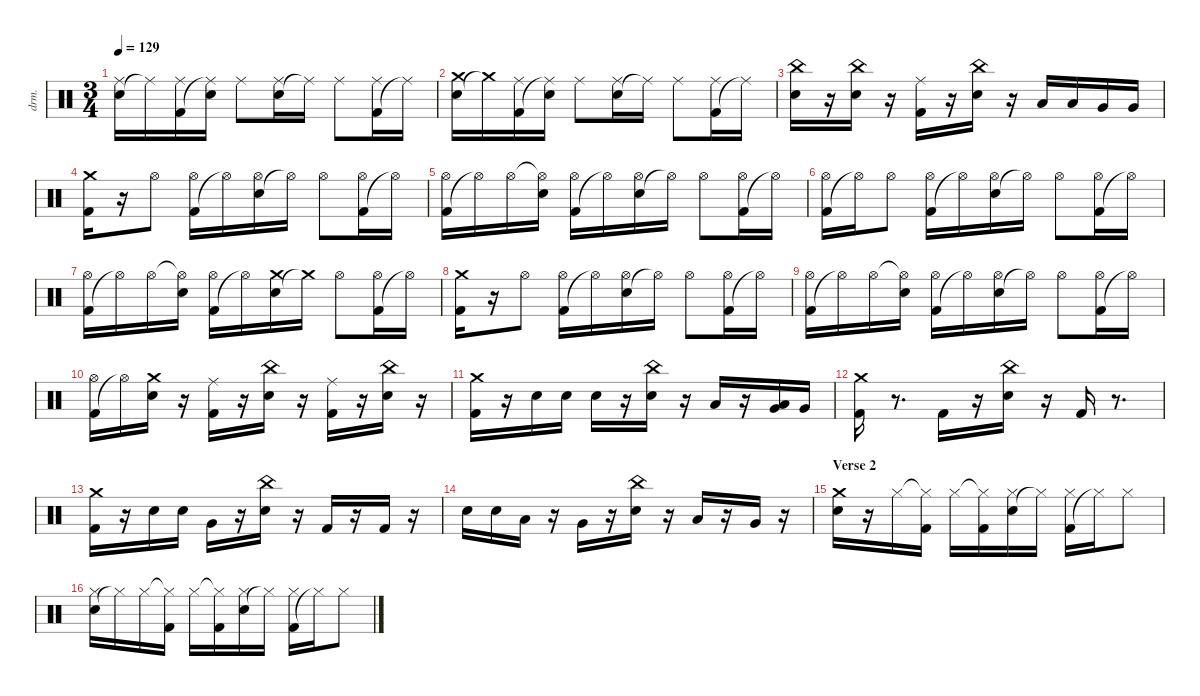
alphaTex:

\defaultSystemsLayout 4
\hideDynamics
\bracketExtendMode nobrackets
\otherSystemsTrackNameOrientation horizontal
\track ("Drumkit" "drm.") {instrument percussion}
\staff {score}
\articulation defaults
\ts (3 4)
\tempo 129
\clef neutral
\ks c
("Snare (hit) 2" "Ride (middle)"{acc #}).16{dy fff} "Ride (middle)"{t acc #}.16 ("Kick (hit) 2" "Ride (middle)"{acc #}).16 ("Ride (middle)"{t acc #} "Snare (hit) 2").16 "Ride (middle)"{acc #}.8 ("Snare (hit) 2" "Ride (middle)"{acc #}).16 "Ride (middle)"{t acc #}.16 "Ride (middle)"{acc #}.8 ("Kick (hit) 2" "Ride (middle)"{acc #}).16 "Ride (middle)"{t acc #}.16 |
("Snare (hit) 2" "Crash medium (hit)").16 "Crash medium (hit)"{t}.16 ("Kick (hit) 2" "Ride (middle)"{acc #}).16 ("Ride (middle)"{t acc #} "Snare (hit) 2").16 "Ride (middle)"{acc #}.8 ("Snare (hit) 2" "Ride (middle)"{acc #}).16 "Ride (middle)"{t acc #}.16 "Ride (middle)"{acc #}.8 ("Kick (hit) 2" "Ride (middle)"{acc #}).16 "Ride (middle)"{t acc #}.16 |
("Snare (hit) 2" "China (hit)").16 r.16 ("Snare (hit) 2" "China (hit)").16 r.16 ("Kick (hit) 2" "Ride (middle)"{acc #}).16 r.16 ("Snare (hit) 2" "China (hit)").16 r.16 "Low Tom (hit)".16 "Low Tom (hit)".16 "Very Low Tom (hit)".16 "Very Low Tom (hit)".16 |
("Kick (hit) 2" "Crash medium (hit)").16 r.16 "Hi-Hat (open)"{acc #}.8 ("Kick (hit) 2" "Hi-Hat (open)"{acc #}).16 "Hi-Hat (open)"{t acc #}.16 ("Snare (hit) 2" "Hi-Hat (open)"{acc #}).16 "Hi-Hat (open)"{t acc #}.16 "Hi-Hat (open)"{acc #}.8 ("Kick (hit) 2" "Hi-Hat (open)"{acc #}).16 "Hi-Hat (open)"{t acc #}.16 |
("Kick (hit) 2" "Hi-Hat (open)"{acc #}).16 "Hi-Hat (open)"{t acc #}.16 "Hi-Hat (open)"{acc #}.16 ("Hi-Hat (open)"{t acc #} "Snare (hit) 2").16 ("Kick (hit) 2" "Hi-Hat (open)"{acc #}).16 "Hi-Hat (open)"{t acc #}.16 ("Snare (hit) 2" "Hi-Hat (open)"{acc #}).16 "Hi-Hat (open)"{t acc #}.16 "Hi-Hat (open)"{acc #}.8 ("Kick (hit) 2" "Hi-Hat (open)"{acc #}).16 "Hi-Hat (open)"{t acc #}.16 |
("Kick (hit) 2" "Hi-Hat (open)"{acc #}).16 "Hi-Hat (open)"{t acc #}.16 "Hi-Hat (open)"{acc #}.8 ("Kick (hit) 2" "Hi-Hat (open)"{acc #}).16 "Hi-Hat (open)"{t acc #}.16 ("Snare (hit) 2" "Hi-Hat (open)"{acc #}).16 "Hi-Hat (open)"{t acc #}.16 "Hi-Hat (open)"{acc #}.8 ("Kick (hit) 2" "Hi-Hat (open)"{acc #}).16 "Hi-Hat (open)"{t acc #}.16 |
("Kick (hit) 2" "Hi-Hat (open)"{acc #}).16 "Hi-Hat (open)"{t acc #}.16 "Hi-Hat (open)"{acc #}.16 ("Hi-Hat (open)"{t acc #} "Snare (hit) 2").16 ("Kick (hit) 2" "Hi-Hat (open)"{acc #}).16 "Hi-Hat (open)"{t acc #}.16 ("Snare (hit) 2" "Crash medium (hit)").16 "Crash medium (hit)"{t}.16 "Hi-Hat (open)"{acc #}.8 ("Kick (hit) 2" "Hi-Hat (open)"{acc #}).16 "Hi-Hat (open)"{t acc #}.16 |
("Kick (hit) 2" "Crash medium (hit)").16 r.16 "Hi-Hat (open)"{acc #}.8 ("Kick (hit) 2" "Hi-Hat (open)"{acc #}).16 "Hi-Hat (open)"{t acc #}.16 ("Snare (hit) 2" "Hi-Hat (open)"{acc #}).16 "Hi-Hat (open)"{t acc #}.16 "Hi-Hat (open)"{acc #}.8 ("Kick (hit) 2" "Hi-Hat (open)"{acc #}).16 "Hi-Hat (open)"{t acc #}.16 |
("Kick (hit) 2" "Hi-Hat (open)"{acc #}).16 "Hi-Hat (open)"{t acc #}.16 "Hi-Hat (open)"{acc #}.16 ("Hi-Hat (open)"{t acc #} "Snare (hit) 2").16 ("Kick (hit) 2" "Hi-Hat (open)"{acc #}).16 "Hi-Hat (open)"{t acc #}.16 ("Snare (hit) 2" "Hi-Hat (open)"{acc #}).16 "Hi-Hat (open)"{t acc #}.16 "Hi-Hat (open)"{acc #}.8 ("Kick (hit) 2" "Hi-Hat (open)"{acc #}).16 "Hi-Hat (open)"{t acc #}.16 |
("Kick (hit) 2" "Hi-Hat (open)"{acc #}).16 "Hi-Hat (open)"{t acc #}.16 ("Snare (hit) 2" "Crash medium (hit)").16 r.16 ("Kick (hit) 2" "Ride (middle)"{acc #}).16 r.16 ("Snare (hit) 2" "China (hit)").16 r.16 ("Kick (hit) 2" "Ride (middle)"{acc #}).16 r.16 ("Snare (hit) 2" "China (hit)").16 r.16 |
("Kick (hit) 2" "Crash medium (hit)").16 r.16 "Snare (hit) 2".16 "Snare (hit) 2".16 "Snare (hit) 2".16 r.16 ("Snare (hit) 2" "China (hit)").16 r.16 "Low Tom (hit)".16 r.16 ("Very Low Tom (hit)" "Low Tom (hit)").16 "Very Low Tom (hit)".16 |
("Kick (hit) 2" "Crash medium (hit)").16 r.8{d} "Kick (hit) 2".16 r.16 ("Snare (hit) 2" "China (hit)").16 r.16 "Kick (hit) 2".16 r.8{d} |
("Kick (hit) 2" "Crash medium (hit)").16 r.16 "Snare (hit) 2".16 "Snare (hit) 2".16 "Very Low Tom (hit)".16 r.16 ("Snare (hit) 2" "China (hit)").16 r.16 "Kick (hit) 2".16 r.16 "Kick (hit) 2".16 r.16 |
"Snare (hit) 2".16 "Snare (hit) 2".16 "Low Tom (hit)".16 r.16 "Very Low Tom (hit)".16 r.16 ("Snare (hit) 2" "China (hit)").16 r.16 "Low Tom (hit)".16 r.16 "Very Low Tom (hit)".16 r.16 |
\section ("" "Verse 2")
("Snare (hit) 2" "Crash medium (hit)").16 r.16 "Hi-Hat (closed)"{acc #}.16 ("Hi-Hat (closed)"{t acc #} "Kick (hit) 2").16 "Hi-Hat (closed)"{acc #}.16 ("Hi-Hat (closed)"{t acc #} "Kick (hit) 2").16 ("Snare (hit) 2" "Hi-Hat (closed)"{acc #}).16 "Hi-Hat (closed)"{t acc #}.16 ("Kick (hit) 2" "Hi-Hat (closed)"{acc #}).16 "Hi-Hat (closed)"{t acc #}.16 "Hi-Hat (closed)"{acc #}.8 |
("Snare (hit) 2" "Hi-Hat (closed)"{acc #}).16 "Hi-Hat (closed)"{t acc #}.16 "Hi-Hat (closed)"{acc #}.16 ("Hi-Hat (closed)"{t acc #} "Kick (hit) 2").16 "Hi-Hat (closed)"{acc #}.16 ("Hi-Hat (closed)"{t acc #} "Kick (hit) 2").16 ("Snare (hit) 2" "Hi-Hat (closed)"{acc #}).16 "Hi-Hat (closed)"{t acc #}.16 ("Kick (hit) 2" "Hi-Hat (closed)"{acc #}).16 "Hi-Hat (closed)"{t acc #}.16 "Hi-Hat (closed)"{acc #}.8
